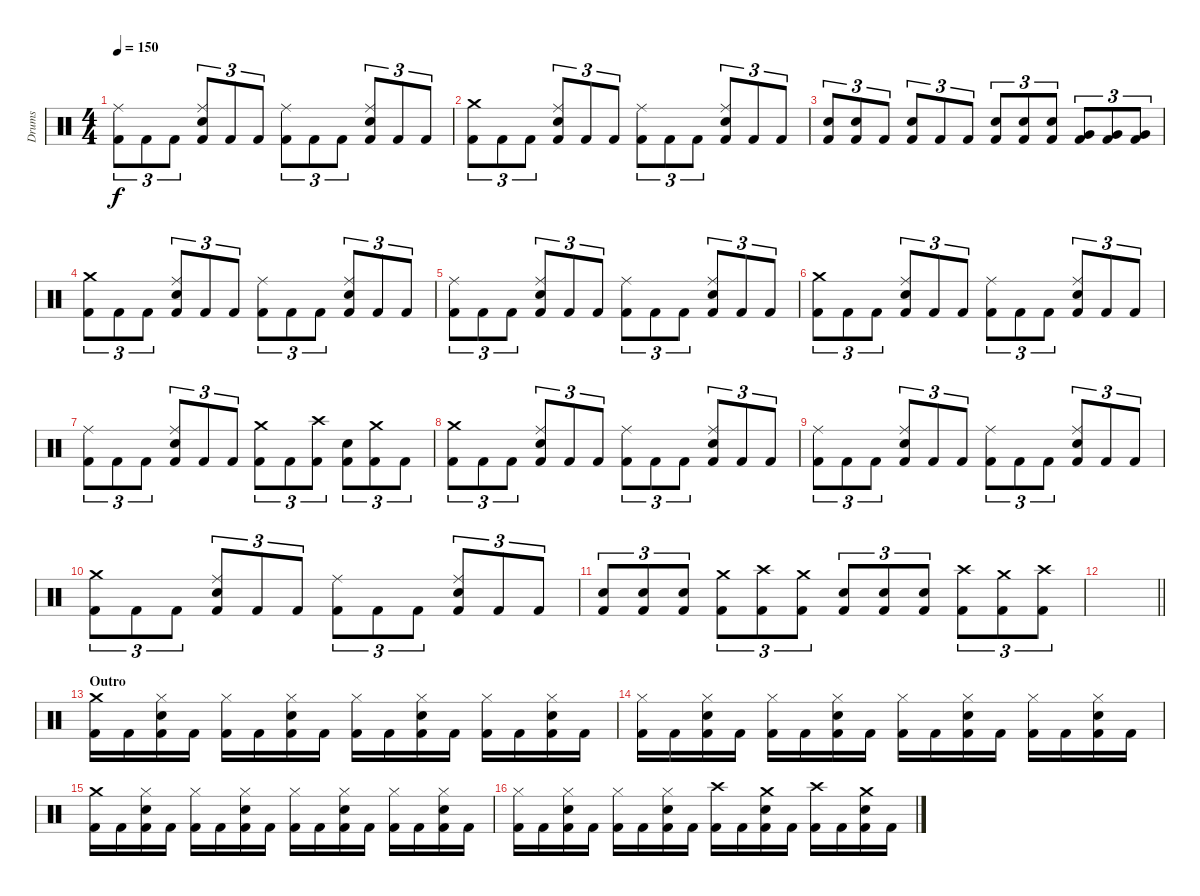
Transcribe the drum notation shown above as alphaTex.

\track ("Drums" "Drums") {instrument percussion}
\staff {score}
\articulation defaults
\ts (4 4)
\tempo 150
\clef neutral
\ks c
("Kick (hit) 2" "Ride (middle)").8{tu (3 2) dy f} "Kick (hit) 2".8{tu (3 2)} "Kick (hit) 2".8{tu (3 2)} ("Kick (hit) 2" "Snare (hit) 2" "Ride (middle)").8{tu (3 2)} "Kick (hit) 2".8{tu (3 2)} "Kick (hit) 2".8{tu (3 2)} ("Kick (hit) 2" "Ride (middle)").8{tu (3 2)} "Kick (hit) 2".8{tu (3 2)} "Kick (hit) 2".8{tu (3 2)} ("Kick (hit) 2" "Snare (hit) 2" "Ride (middle)").8{tu (3 2)} "Kick (hit) 2".8{tu (3 2)} "Kick (hit) 2".8{tu (3 2)} |
("Kick (hit) 2" "Crash medium (hit)").8{tu (3 2)} "Kick (hit) 2".8{tu (3 2)} "Kick (hit) 2".8{tu (3 2)} ("Kick (hit) 2" "Snare (hit) 2" "Ride (middle)").8{tu (3 2)} "Kick (hit) 2".8{tu (3 2)} "Kick (hit) 2".8{tu (3 2)} ("Kick (hit) 2" "Ride (middle)").8{tu (3 2)} "Kick (hit) 2".8{tu (3 2)} "Kick (hit) 2".8{tu (3 2)} ("Kick (hit) 2" "Snare (hit) 2" "Ride (middle)").8{tu (3 2)} "Kick (hit) 2".8{tu (3 2)} "Kick (hit) 2".8{tu (3 2)} |
("Kick (hit) 2" "Snare (hit) 2").8{tu (3 2)} ("Kick (hit) 2" "Snare (hit) 2").8{tu (3 2)} "Kick (hit) 2".8{tu (3 2)} ("Kick (hit) 2" "Snare (hit) 2").8{tu (3 2)} "Kick (hit) 2".8{tu (3 2)} "Kick (hit) 2".8{tu (3 2)} ("Kick (hit) 2" "Snare (hit) 2").8{tu (3 2)} ("Kick (hit) 2" "Snare (hit) 2").8{tu (3 2)} ("Kick (hit) 2" "Snare (hit) 2").8{tu (3 2)} ("Kick (hit) 2" "Very Low Tom (hit)").8{tu (3 2)} ("Kick (hit) 2" "Very Low Tom (hit)").8{tu (3 2)} ("Kick (hit) 2" "Very Low Tom (hit)").8{tu (3 2)} |
("Kick (hit) 2" "Crash medium (hit)").8{tu (3 2)} "Kick (hit) 2".8{tu (3 2)} "Kick (hit) 2".8{tu (3 2)} ("Kick (hit) 2" "Snare (hit) 2" "Ride (middle)").8{tu (3 2)} "Kick (hit) 2".8{tu (3 2)} "Kick (hit) 2".8{tu (3 2)} ("Kick (hit) 2" "Ride (middle)").8{tu (3 2)} "Kick (hit) 2".8{tu (3 2)} "Kick (hit) 2".8{tu (3 2)} ("Kick (hit) 2" "Snare (hit) 2" "Ride (middle)").8{tu (3 2)} "Kick (hit) 2".8{tu (3 2)} "Kick (hit) 2".8{tu (3 2)} |
("Kick (hit) 2" "Ride (middle)").8{tu (3 2)} "Kick (hit) 2".8{tu (3 2)} "Kick (hit) 2".8{tu (3 2)} ("Kick (hit) 2" "Snare (hit) 2" "Ride (middle)").8{tu (3 2)} "Kick (hit) 2".8{tu (3 2)} "Kick (hit) 2".8{tu (3 2)} ("Kick (hit) 2" "Ride (middle)").8{tu (3 2)} "Kick (hit) 2".8{tu (3 2)} "Kick (hit) 2".8{tu (3 2)} ("Kick (hit) 2" "Snare (hit) 2" "Ride (middle)").8{tu (3 2)} "Kick (hit) 2".8{tu (3 2)} "Kick (hit) 2".8{tu (3 2)} |
("Kick (hit) 2" "Crash medium (hit)").8{tu (3 2)} "Kick (hit) 2".8{tu (3 2)} "Kick (hit) 2".8{tu (3 2)} ("Kick (hit) 2" "Snare (hit) 2" "Ride (middle)").8{tu (3 2)} "Kick (hit) 2".8{tu (3 2)} "Kick (hit) 2".8{tu (3 2)} ("Kick (hit) 2" "Ride (middle)").8{tu (3 2)} "Kick (hit) 2".8{tu (3 2)} "Kick (hit) 2".8{tu (3 2)} ("Kick (hit) 2" "Snare (hit) 2" "Ride (middle)").8{tu (3 2)} "Kick (hit) 2".8{tu (3 2)} "Kick (hit) 2".8{tu (3 2)} |
("Kick (hit) 2" "Ride (middle)").8{tu (3 2)} "Kick (hit) 2".8{tu (3 2)} "Kick (hit) 2".8{tu (3 2)} ("Kick (hit) 2" "Snare (hit) 2" "Ride (middle)").8{tu (3 2)} "Kick (hit) 2".8{tu (3 2)} "Kick (hit) 2".8{tu (3 2)} ("Kick (hit) 2" "Crash medium (hit)").8{tu (3 2)} "Kick (hit) 2".8{tu (3 2)} ("Kick (hit) 2" "Crash high (hit)").8{tu (3 2)} ("Kick (hit) 2" "Snare (hit) 2").8{tu (3 2)} ("Kick (hit) 2" "Crash medium (hit)").8{tu (3 2)} "Kick (hit) 2".8{tu (3 2)} |
("Kick (hit) 2" "Crash medium (hit)").8{tu (3 2)} "Kick (hit) 2".8{tu (3 2)} "Kick (hit) 2".8{tu (3 2)} ("Kick (hit) 2" "Snare (hit) 2" "Ride (middle)").8{tu (3 2)} "Kick (hit) 2".8{tu (3 2)} "Kick (hit) 2".8{tu (3 2)} ("Kick (hit) 2" "Ride (middle)").8{tu (3 2)} "Kick (hit) 2".8{tu (3 2)} "Kick (hit) 2".8{tu (3 2)} ("Kick (hit) 2" "Snare (hit) 2" "Ride (middle)").8{tu (3 2)} "Kick (hit) 2".8{tu (3 2)} "Kick (hit) 2".8{tu (3 2)} |
("Kick (hit) 2" "Ride (middle)").8{tu (3 2)} "Kick (hit) 2".8{tu (3 2)} "Kick (hit) 2".8{tu (3 2)} ("Kick (hit) 2" "Snare (hit) 2" "Ride (middle)").8{tu (3 2)} "Kick (hit) 2".8{tu (3 2)} "Kick (hit) 2".8{tu (3 2)} ("Kick (hit) 2" "Ride (middle)").8{tu (3 2)} "Kick (hit) 2".8{tu (3 2)} "Kick (hit) 2".8{tu (3 2)} ("Kick (hit) 2" "Snare (hit) 2" "Ride (middle)").8{tu (3 2)} "Kick (hit) 2".8{tu (3 2)} "Kick (hit) 2".8{tu (3 2)} |
("Kick (hit) 2" "Crash medium (hit)").8{tu (3 2)} "Kick (hit) 2".8{tu (3 2)} "Kick (hit) 2".8{tu (3 2)} ("Kick (hit) 2" "Snare (hit) 2" "Ride (middle)").8{tu (3 2)} "Kick (hit) 2".8{tu (3 2)} "Kick (hit) 2".8{tu (3 2)} ("Kick (hit) 2" "Ride (middle)").8{tu (3 2)} "Kick (hit) 2".8{tu (3 2)} "Kick (hit) 2".8{tu (3 2)} ("Kick (hit) 2" "Snare (hit) 2" "Ride (middle)").8{tu (3 2)} "Kick (hit) 2".8{tu (3 2)} "Kick (hit) 2".8{tu (3 2)} |
("Kick (hit) 2" "Snare (hit) 2").8{tu (3 2)} ("Kick (hit) 2" "Snare (hit) 2").8{tu (3 2)} ("Kick (hit) 2" "Snare (hit) 2").8{tu (3 2)} ("Kick (hit) 2" "Crash medium (hit)").8{tu (3 2)} ("Kick (hit) 2" "Crash high (hit)").8{tu (3 2)} ("Kick (hit) 2" "Crash medium (hit)").8{tu (3 2)} ("Kick (hit) 2" "Snare (hit) 2").8{tu (3 2)} ("Kick (hit) 2" "Snare (hit) 2").8{tu (3 2)} ("Kick (hit) 2" "Snare (hit) 2").8{tu (3 2)} ("Kick (hit) 2" "Crash high (hit)").8{tu (3 2)} ("Kick (hit) 2" "Crash medium (hit)").8{tu (3 2)} ("Kick (hit) 2" "Crash high (hit)").8{tu (3 2)} |
\barLineRight lightlight
|
\section ("" "Outro")
("Kick (hit) 2" "Crash medium (hit)").16 "Kick (hit) 2".16 ("Kick (hit) 2" "Snare (hit) 2" "Hi-Hat (closed)").16 "Kick (hit) 2".16 ("Kick (hit) 2" "Hi-Hat (closed)").16 "Kick (hit) 2".16 ("Kick (hit) 2" "Snare (hit) 2" "Hi-Hat (closed)").16 "Kick (hit) 2".16 ("Kick (hit) 2" "Hi-Hat (closed)").16 "Kick (hit) 2".16 ("Kick (hit) 2" "Snare (hit) 2" "Hi-Hat (closed)").16 "Kick (hit) 2".16 ("Kick (hit) 2" "Hi-Hat (closed)").16 "Kick (hit) 2".16 ("Kick (hit) 2" "Snare (hit) 2" "Hi-Hat (closed)").16 "Kick (hit) 2".16 |
("Kick (hit) 2" "Hi-Hat (closed)").16 "Kick (hit) 2".16 ("Kick (hit) 2" "Snare (hit) 2" "Hi-Hat (closed)").16 "Kick (hit) 2".16 ("Kick (hit) 2" "Hi-Hat (closed)").16 "Kick (hit) 2".16 ("Kick (hit) 2" "Snare (hit) 2" "Hi-Hat (closed)").16 "Kick (hit) 2".16 ("Kick (hit) 2" "Hi-Hat (closed)").16 "Kick (hit) 2".16 ("Kick (hit) 2" "Snare (hit) 2" "Hi-Hat (closed)").16 "Kick (hit) 2".16 ("Kick (hit) 2" "Hi-Hat (closed)").16 "Kick (hit) 2".16 ("Kick (hit) 2" "Snare (hit) 2" "Hi-Hat (closed)").16 "Kick (hit) 2".16 |
("Kick (hit) 2" "Crash medium (hit)").16 "Kick (hit) 2".16 ("Kick (hit) 2" "Snare (hit) 2" "Hi-Hat (closed)").16 "Kick (hit) 2".16 ("Kick (hit) 2" "Hi-Hat (closed)").16 "Kick (hit) 2".16 ("Kick (hit) 2" "Snare (hit) 2" "Hi-Hat (closed)").16 "Kick (hit) 2".16 ("Kick (hit) 2" "Hi-Hat (closed)").16 "Kick (hit) 2".16 ("Kick (hit) 2" "Snare (hit) 2" "Hi-Hat (closed)").16 "Kick (hit) 2".16 ("Kick (hit) 2" "Hi-Hat (closed)").16 "Kick (hit) 2".16 ("Kick (hit) 2" "Snare (hit) 2" "Hi-Hat (closed)").16 "Kick (hit) 2".16 |
("Kick (hit) 2" "Hi-Hat (closed)").16 "Kick (hit) 2".16 ("Kick (hit) 2" "Snare (hit) 2" "Hi-Hat (closed)").16 "Kick (hit) 2".16 ("Kick (hit) 2" "Hi-Hat (closed)").16 "Kick (hit) 2".16 ("Kick (hit) 2" "Snare (hit) 2" "Hi-Hat (closed)").16 "Kick (hit) 2".16 ("Kick (hit) 2" "Crash high (hit)").16 "Kick (hit) 2".16 ("Kick (hit) 2" "Snare (hit) 2" "Crash medium (hit)").16 "Kick (hit) 2".16 ("Kick (hit) 2" "Crash high (hit)").16 "Kick (hit) 2".16 ("Kick (hit) 2" "Snare (hit) 2" "Crash medium (hit)").16 "Kick (hit) 2".16
